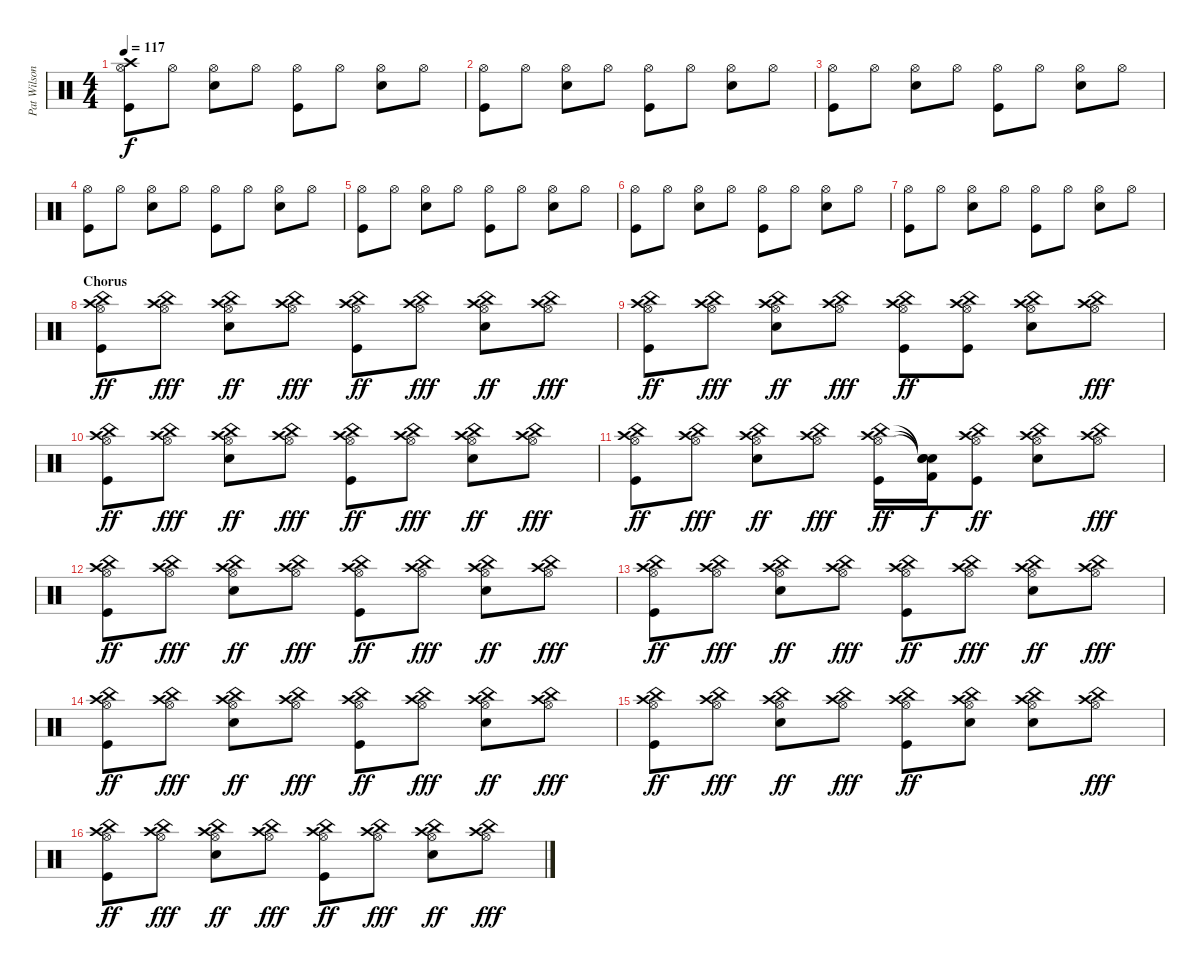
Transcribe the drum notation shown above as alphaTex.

\track ("Pat Wilson" "Pat Wilson") {instrument percussion}
\staff {score}
\articulation defaults
\ts (4 4)
\tempo 117
\clef neutral
\ks c
("Crash high (hit)" "Hi-Hat (open)" "Kick (hit)").8{dy f} "Hi-Hat (open)".8 ("Hi-Hat (open)" "Snare (hit) 2").8 "Hi-Hat (open)".8 ("Hi-Hat (open)" "Kick (hit)").8 "Hi-Hat (open)".8 ("Hi-Hat (open)" "Snare (hit) 2").8 "Hi-Hat (open)".8 |
("Hi-Hat (open)" "Kick (hit)").8 "Hi-Hat (open)".8 ("Hi-Hat (open)" "Snare (hit) 2").8 "Hi-Hat (open)".8 ("Hi-Hat (open)" "Kick (hit)").8 "Hi-Hat (open)".8 ("Hi-Hat (open)" "Snare (hit) 2").8 "Hi-Hat (open)".8 |
("Hi-Hat (open)" "Kick (hit)").8 "Hi-Hat (open)".8 ("Hi-Hat (open)" "Snare (hit) 2").8 "Hi-Hat (open)".8 ("Hi-Hat (open)" "Kick (hit)").8 "Hi-Hat (open)".8 ("Hi-Hat (open)" "Snare (hit) 2").8 "Hi-Hat (open)".8 |
("Hi-Hat (open)" "Kick (hit)").8 "Hi-Hat (open)".8 ("Hi-Hat (open)" "Snare (hit) 2").8 "Hi-Hat (open)".8 ("Hi-Hat (open)" "Kick (hit)").8 "Hi-Hat (open)".8 ("Hi-Hat (open)" "Snare (hit) 2").8 "Hi-Hat (open)".8 |
("Hi-Hat (open)" "Kick (hit)").8 "Hi-Hat (open)".8 ("Hi-Hat (open)" "Snare (hit) 2").8 "Hi-Hat (open)".8 ("Hi-Hat (open)" "Kick (hit)").8 "Hi-Hat (open)".8 ("Hi-Hat (open)" "Snare (hit) 2").8 "Hi-Hat (open)".8 |
("Hi-Hat (open)" "Kick (hit)").8 "Hi-Hat (open)".8 ("Hi-Hat (open)" "Snare (hit) 2").8 "Hi-Hat (open)".8 ("Hi-Hat (open)" "Kick (hit)").8 "Hi-Hat (open)".8 ("Hi-Hat (open)" "Snare (hit) 2").8 "Hi-Hat (open)".8 |
("Hi-Hat (open)" "Kick (hit)").8 "Hi-Hat (open)".8 ("Hi-Hat (open)" "Snare (hit) 2").8 "Hi-Hat (open)".8 ("Hi-Hat (open)" "Kick (hit)").8 "Hi-Hat (open)".8 ("Hi-Hat (open)" "Snare (hit) 2").8 "Hi-Hat (open)".8 |
\section ("" "Chorus")
("Crash high (hit)" "Hi-Hat (open)" "China (hit)" "Kick (hit)").8{dy ff} ("Crash high (hit)" "Hi-Hat (open)" "China (hit)").8{dy fff} ("Crash high (hit)" "Hi-Hat (open)" "China (hit)" "Electric Snare (hit)").8{dy ff} ("Crash high (hit)" "Hi-Hat (open)" "China (hit)").8{dy fff} ("Crash high (hit)" "Hi-Hat (open)" "China (hit)" "Kick (hit)").8{dy ff} ("Crash high (hit)" "Hi-Hat (open)" "China (hit)").8{dy fff} ("Crash high (hit)" "Hi-Hat (open)" "China (hit)" "Electric Snare (hit)").8{dy ff} ("Crash high (hit)" "Hi-Hat (open)" "China (hit)").8{dy fff} |
("Crash high (hit)" "Hi-Hat (open)" "China (hit)" "Kick (hit)").8{dy ff} ("Crash high (hit)" "Hi-Hat (open)" "China (hit)").8{dy fff} ("Crash high (hit)" "Hi-Hat (open)" "China (hit)" "Electric Snare (hit)").8{dy ff} ("Crash high (hit)" "Hi-Hat (open)" "China (hit)").8{dy fff} ("Crash high (hit)" "Hi-Hat (open)" "China (hit)" "Kick (hit)").8{dy ff} ("Crash high (hit)" "Hi-Hat (open)" "China (hit)" "Kick (hit)").8 ("Crash high (hit)" "Hi-Hat (open)" "China (hit)" "Electric Snare (hit)").8 ("Crash high (hit)" "Hi-Hat (open)" "China (hit)").8{dy fff} |
("Crash high (hit)" "Hi-Hat (open)" "China (hit)" "Kick (hit)").8{dy ff} ("Crash high (hit)" "Hi-Hat (open)" "China (hit)").8{dy fff} ("Crash high (hit)" "Hi-Hat (open)" "China (hit)" "Electric Snare (hit)").8{dy ff} ("Crash high (hit)" "Hi-Hat (open)" "China (hit)").8{dy fff} ("Crash high (hit)" "Hi-Hat (open)" "China (hit)" "Kick (hit)").8{dy ff} ("Crash high (hit)" "Hi-Hat (open)" "China (hit)").8{dy fff} ("Crash high (hit)" "Hi-Hat (open)" "China (hit)" "Electric Snare (hit)").8{dy ff} ("Crash high (hit)" "Hi-Hat (open)" "China (hit)").8{dy fff} |
("Crash high (hit)" "Hi-Hat (open)" "China (hit)" "Kick (hit)").8{dy ff} ("Crash high (hit)" "Hi-Hat (open)" "China (hit)").8{dy fff} ("Crash high (hit)" "Hi-Hat (open)" "China (hit)" "Electric Snare (hit)").8{dy ff} ("Crash high (hit)" "Hi-Hat (open)" "China (hit)").8{dy fff} ("Crash high (hit)" "Hi-Hat (open)" "China (hit)" "Kick (hit)").16{dy ff} ("Snare (hit)"{t} "Snare (hit)"{t} "Snare (hit)"{t} "Kick (hit) 2").16{dy f} ("Crash high (hit)" "Hi-Hat (open)" "China (hit)" "Kick (hit)").8{dy ff} ("Crash high (hit)" "Hi-Hat (open)" "China (hit)" "Electric Snare (hit)").8 ("Crash high (hit)" "Hi-Hat (open)" "China (hit)").8{dy fff} |
("Crash high (hit)" "Hi-Hat (open)" "China (hit)" "Kick (hit)").8{dy ff} ("Crash high (hit)" "Hi-Hat (open)" "China (hit)").8{dy fff} ("Crash high (hit)" "Hi-Hat (open)" "China (hit)" "Electric Snare (hit)").8{dy ff} ("Crash high (hit)" "Hi-Hat (open)" "China (hit)").8{dy fff} ("Crash high (hit)" "Hi-Hat (open)" "China (hit)" "Kick (hit)").8{dy ff} ("Crash high (hit)" "Hi-Hat (open)" "China (hit)").8{dy fff} ("Crash high (hit)" "Hi-Hat (open)" "China (hit)" "Electric Snare (hit)").8{dy ff} ("Crash high (hit)" "Hi-Hat (open)" "China (hit)").8{dy fff} |
("Crash high (hit)" "Hi-Hat (open)" "China (hit)" "Kick (hit)").8{dy ff} ("Crash high (hit)" "Hi-Hat (open)" "China (hit)").8{dy fff} ("Crash high (hit)" "Hi-Hat (open)" "China (hit)" "Electric Snare (hit)").8{dy ff} ("Crash high (hit)" "Hi-Hat (open)" "China (hit)").8{dy fff} ("Crash high (hit)" "Hi-Hat (open)" "China (hit)" "Kick (hit)").8{dy ff} ("Crash high (hit)" "Hi-Hat (open)" "China (hit)").8{dy fff} ("Crash high (hit)" "Hi-Hat (open)" "China (hit)" "Electric Snare (hit)").8{dy ff} ("Crash high (hit)" "Hi-Hat (open)" "China (hit)").8{dy fff} |
("Crash high (hit)" "Hi-Hat (open)" "China (hit)" "Kick (hit)").8{dy ff} ("Crash high (hit)" "Hi-Hat (open)" "China (hit)").8{dy fff} ("Crash high (hit)" "Hi-Hat (open)" "China (hit)" "Electric Snare (hit)").8{dy ff} ("Crash high (hit)" "Hi-Hat (open)" "China (hit)").8{dy fff} ("Crash high (hit)" "Hi-Hat (open)" "China (hit)" "Kick (hit)").8{dy ff} ("Crash high (hit)" "Hi-Hat (open)" "China (hit)").8{dy fff} ("Crash high (hit)" "Hi-Hat (open)" "China (hit)" "Electric Snare (hit)").8{dy ff} ("Crash high (hit)" "Hi-Hat (open)" "China (hit)").8{dy fff} |
("Crash high (hit)" "Hi-Hat (open)" "China (hit)" "Kick (hit)").8{dy ff} ("Crash high (hit)" "Hi-Hat (open)" "China (hit)").8{dy fff} ("Crash high (hit)" "Hi-Hat (open)" "China (hit)" "Electric Snare (hit)").8{dy ff} ("Crash high (hit)" "Hi-Hat (open)" "China (hit)").8{dy fff} ("Crash high (hit)" "Hi-Hat (open)" "China (hit)" "Kick (hit)").8{dy ff} ("Crash high (hit)" "Hi-Hat (open)" "China (hit)" "Snare (hit) 2").8 ("Crash high (hit)" "Hi-Hat (open)" "China (hit)" "Electric Snare (hit)").8 ("Crash high (hit)" "Hi-Hat (open)" "China (hit)").8{dy fff} |
("Crash high (hit)" "Hi-Hat (open)" "China (hit)" "Kick (hit)").8{dy ff} ("Crash high (hit)" "Hi-Hat (open)" "China (hit)").8{dy fff} ("Crash high (hit)" "Hi-Hat (open)" "China (hit)" "Electric Snare (hit)").8{dy ff} ("Crash high (hit)" "Hi-Hat (open)" "China (hit)").8{dy fff} ("Crash high (hit)" "Hi-Hat (open)" "China (hit)" "Kick (hit)").8{dy ff} ("Crash high (hit)" "Hi-Hat (open)" "China (hit)").8{dy fff} ("Crash high (hit)" "Hi-Hat (open)" "China (hit)" "Electric Snare (hit)").8{dy ff} ("Crash high (hit)" "Hi-Hat (open)" "China (hit)").8{dy fff}
